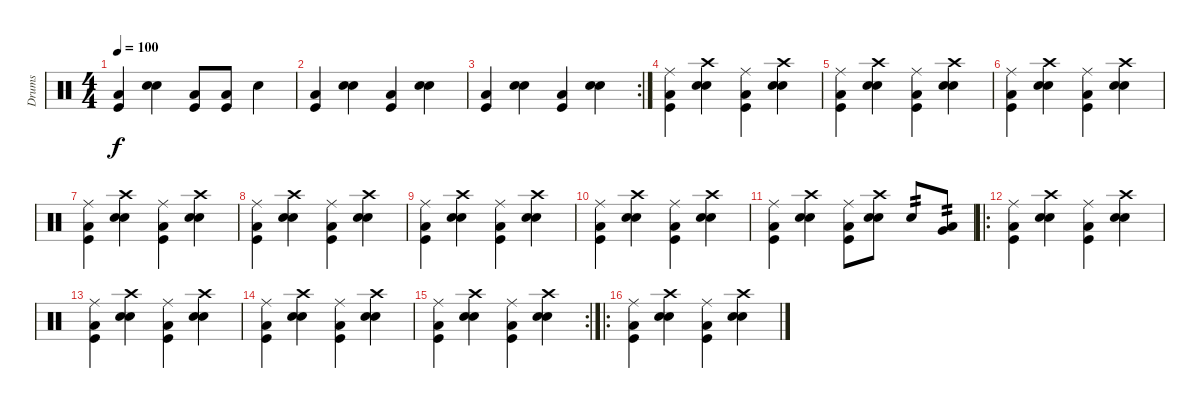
\track ("Drums" "Drums") {instrument percussion}
\staff {score}
\articulation defaults
\ts (4 4)
\tempo 100
\clef neutral
\ks c
("Kick (hit)" "Low Floor Tom (hit)").4{dy f} ("Snare (hit) 2" "Electric Snare (hit)").4 ("Kick (hit)" "Low Floor Tom (hit)").8 ("Kick (hit)" "Low Floor Tom (hit)").8 "Snare (hit) 2".4 |
("Kick (hit)" "Low Floor Tom (hit)").4 ("Snare (hit) 2" "Electric Snare (hit)").4 ("Kick (hit)" "Low Floor Tom (hit)").4 ("Snare (hit) 2" "Electric Snare (hit)").4 |
\rc 2
("Kick (hit)" "Low Floor Tom (hit)").4 ("Snare (hit) 2" "Electric Snare (hit)").4 ("Kick (hit)" "Low Floor Tom (hit)").4 ("Snare (hit) 2" "Electric Snare (hit)").4 |
("Ride (middle)" "Kick (hit)" "Low Floor Tom (hit)").4 ("Crash high (hit)" "Snare (hit) 2" "Electric Snare (hit)").4 ("Ride (middle)" "Kick (hit)" "Low Floor Tom (hit)").4 ("Crash high (hit)" "Snare (hit) 2" "Electric Snare (hit)").4 |
("Ride (middle)" "Kick (hit)" "Low Floor Tom (hit)").4 ("Crash high (hit)" "Snare (hit) 2" "Electric Snare (hit)").4 ("Ride (middle)" "Kick (hit)" "Low Floor Tom (hit)").4 ("Crash high (hit)" "Snare (hit) 2" "Electric Snare (hit)").4 |
("Ride (middle)" "Kick (hit)" "Low Floor Tom (hit)").4 ("Crash high (hit)" "Snare (hit) 2" "Electric Snare (hit)").4 ("Ride (middle)" "Kick (hit)" "Low Floor Tom (hit)").4 ("Crash high (hit)" "Snare (hit) 2" "Electric Snare (hit)").4 |
("Ride (middle)" "Kick (hit)" "Low Floor Tom (hit)").4 ("Crash high (hit)" "Snare (hit) 2" "Electric Snare (hit)").4 ("Ride (middle)" "Kick (hit)" "Low Floor Tom (hit)").4 ("Crash high (hit)" "Snare (hit) 2" "Electric Snare (hit)").4 |
("Ride (middle)" "Kick (hit)" "Low Floor Tom (hit)").4 ("Crash high (hit)" "Snare (hit) 2" "Electric Snare (hit)").4 ("Ride (middle)" "Kick (hit)" "Low Floor Tom (hit)").4 ("Crash high (hit)" "Snare (hit) 2" "Electric Snare (hit)").4 |
("Ride (middle)" "Kick (hit)" "Low Floor Tom (hit)").4 ("Crash high (hit)" "Snare (hit) 2" "Electric Snare (hit)").4 ("Ride (middle)" "Kick (hit)" "Low Floor Tom (hit)").4 ("Crash high (hit)" "Snare (hit) 2" "Electric Snare (hit)").4 |
("Ride (middle)" "Kick (hit)" "Low Floor Tom (hit)").4 ("Crash high (hit)" "Snare (hit) 2" "Electric Snare (hit)").4 ("Ride (middle)" "Kick (hit)" "Low Floor Tom (hit)").4 ("Crash high (hit)" "Snare (hit) 2" "Electric Snare (hit)").4 |
("Ride (middle)" "Kick (hit)" "Low Floor Tom (hit)").4 ("Crash high (hit)" "Snare (hit) 2" "Electric Snare (hit)").4 ("Ride (middle)" "Kick (hit)" "Low Floor Tom (hit)").8 ("Crash high (hit)" "Snare (hit) 2" "Electric Snare (hit)").8 "Snare (hit) 2".8{tp 2} ("Low Floor Tom (hit)" "Very Low Tom (hit)").8{tp 2} |
\ro
("Ride (middle)" "Kick (hit)" "Low Floor Tom (hit)").4 ("Crash high (hit)" "Snare (hit) 2" "Electric Snare (hit)").4 ("Ride (middle)" "Kick (hit)" "Low Floor Tom (hit)").4 ("Crash high (hit)" "Snare (hit) 2" "Electric Snare (hit)").4 |
("Ride (middle)" "Kick (hit)" "Low Floor Tom (hit)").4 ("Crash high (hit)" "Snare (hit) 2" "Electric Snare (hit)").4 ("Ride (middle)" "Kick (hit)" "Low Floor Tom (hit)").4 ("Crash high (hit)" "Snare (hit) 2" "Electric Snare (hit)").4 |
("Ride (middle)" "Kick (hit)" "Low Floor Tom (hit)").4 ("Crash high (hit)" "Snare (hit) 2" "Electric Snare (hit)").4 ("Ride (middle)" "Kick (hit)" "Low Floor Tom (hit)").4 ("Crash high (hit)" "Snare (hit) 2" "Electric Snare (hit)").4 |
\rc 2
("Ride (middle)" "Kick (hit)" "Low Floor Tom (hit)").4 ("Crash high (hit)" "Snare (hit) 2" "Electric Snare (hit)").4 ("Ride (middle)" "Kick (hit)" "Low Floor Tom (hit)").4 ("Crash high (hit)" "Snare (hit) 2" "Electric Snare (hit)").4 |
\ro
("Ride (middle)" "Kick (hit)" "Low Floor Tom (hit)").4 ("Crash high (hit)" "Snare (hit) 2" "Electric Snare (hit)").4 ("Ride (middle)" "Kick (hit)" "Low Floor Tom (hit)").4 ("Crash high (hit)" "Snare (hit) 2" "Electric Snare (hit)").4
